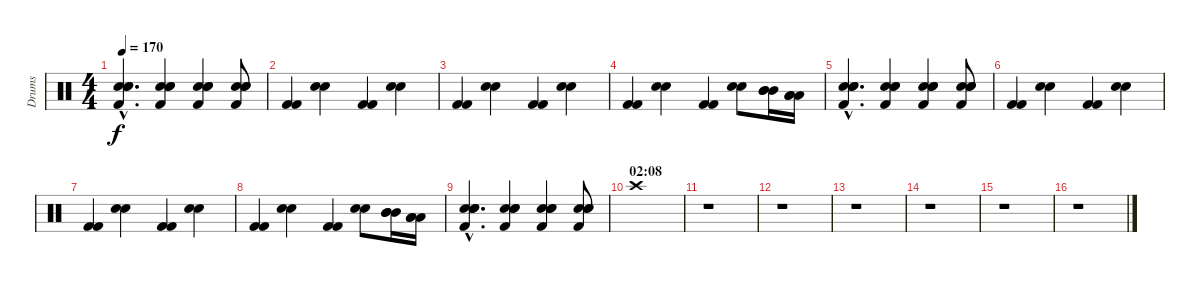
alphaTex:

\track ("Drums" "Drums") {instrument percussion}
\staff {score}
\articulation defaults
\ts (4 4)
\tempo 170
\clef neutral
\ks c
("Snare (hit) 2"{hac} "Electric Snare (hit)"{hac} "Hand Clap (hit)"{hac} "Kick (hit) 2"{hac}).4{d dy f} ("Snare (hit) 2" "Electric Snare (hit)" "Hand Clap (hit)" "Kick (hit) 2").4 ("Snare (hit) 2" "Electric Snare (hit)" "Hand Clap (hit)" "Kick (hit) 2").4 ("Snare (hit) 2" "Electric Snare (hit)" "Hand Clap (hit)" "Kick (hit) 2").8 |
("Kick (hit) 2" "Kick (hit) 2").4 ("Snare (hit) 2" "Hand Clap (hit)").4 ("Kick (hit) 2" "Kick (hit) 2").4 ("Snare (hit) 2" "Hand Clap (hit)").4 |
("Kick (hit) 2" "Kick (hit) 2").4 ("Snare (hit) 2" "Hand Clap (hit)").4 ("Kick (hit) 2" "Kick (hit) 2").4 ("Snare (hit) 2" "Hand Clap (hit)").4 |
("Kick (hit) 2" "Kick (hit) 2").4 ("Snare (hit) 2" "Hand Clap (hit)").4 ("Kick (hit) 2" "Kick (hit) 2").4 ("Snare (hit) 2" "Hand Clap (hit)").8 ("Mid Tom (hit)" "Mid Tom (hit)" "Mid Tom (hit)").16 ("Low Floor Tom (hit)" "Low Floor Tom (hit)" "Low Floor Tom (hit)").16 |
("Snare (hit) 2"{hac} "Electric Snare (hit)"{hac} "Hand Clap (hit)"{hac} "Kick (hit) 2"{hac}).4{d} ("Snare (hit) 2" "Electric Snare (hit)" "Hand Clap (hit)" "Kick (hit) 2").4 ("Snare (hit) 2" "Electric Snare (hit)" "Hand Clap (hit)" "Kick (hit) 2").4 ("Snare (hit) 2" "Electric Snare (hit)" "Hand Clap (hit)" "Kick (hit) 2").8 |
("Kick (hit) 2" "Kick (hit) 2").4 ("Snare (hit) 2" "Hand Clap (hit)").4 ("Kick (hit) 2" "Kick (hit) 2").4 ("Snare (hit) 2" "Hand Clap (hit)").4 |
("Kick (hit) 2" "Kick (hit) 2").4 ("Snare (hit) 2" "Hand Clap (hit)").4 ("Kick (hit) 2" "Kick (hit) 2").4 ("Snare (hit) 2" "Hand Clap (hit)").4 |
("Kick (hit) 2" "Kick (hit) 2").4 ("Snare (hit) 2" "Hand Clap (hit)").4 ("Kick (hit) 2" "Kick (hit) 2").4 ("Snare (hit) 2" "Hand Clap (hit)").8 ("Mid Tom (hit)" "Mid Tom (hit)" "Mid Tom (hit)").16 ("Low Floor Tom (hit)" "Low Floor Tom (hit)" "Low Floor Tom (hit)").16 |
("Snare (hit) 2"{hac} "Electric Snare (hit)"{hac} "Hand Clap (hit)"{hac} "Kick (hit) 2"{hac}).4{d} ("Snare (hit) 2" "Electric Snare (hit)" "Hand Clap (hit)" "Kick (hit) 2").4 ("Snare (hit) 2" "Electric Snare (hit)" "Hand Clap (hit)" "Kick (hit) 2").4 ("Snare (hit) 2" "Electric Snare (hit)" "Hand Clap (hit)" "Kick (hit) 2").8 |
\section ("" "02:08")
"Crash high (hit)".1 |
r.1 |
r.1 |
r.1 |
r.1 |
r.1 |
r.1
